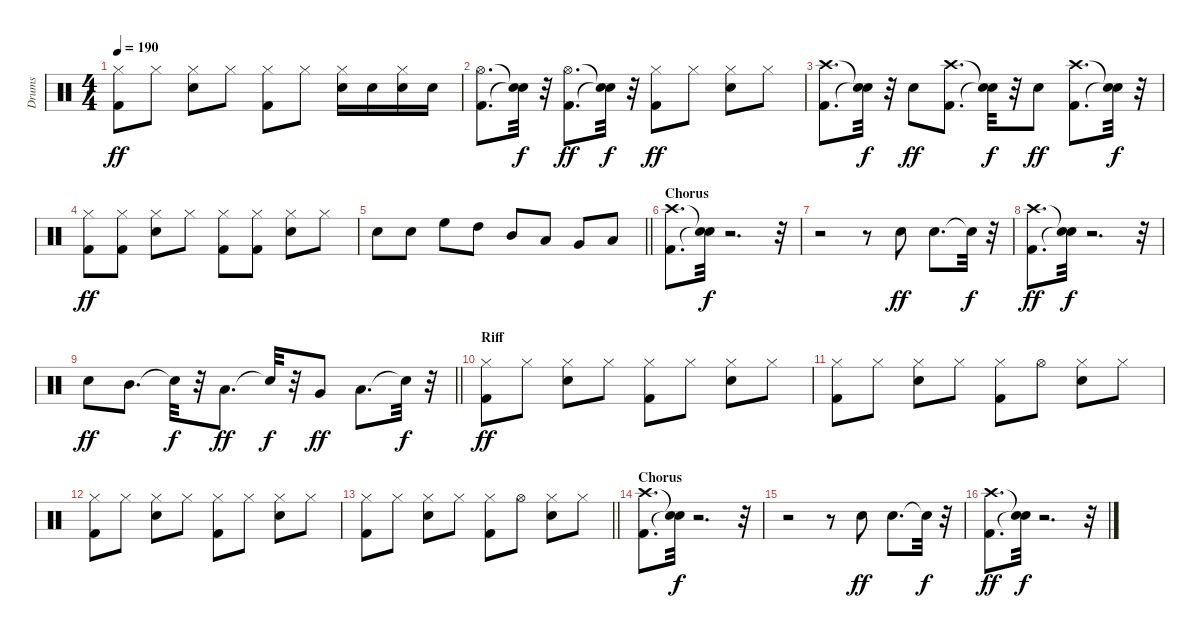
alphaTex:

\track ("Drums" "Drums") {instrument percussion}
\staff {score}
\articulation defaults
\ts (4 4)
\tempo 190
\clef neutral
\ks c
("Kick (hit) 2" "Hi-Hat (closed)").8{dy ff} "Hi-Hat (closed)".8 ("Snare (hit) 2" "Hi-Hat (closed)").8 "Hi-Hat (closed)".8 ("Kick (hit) 2" "Hi-Hat (closed)").8 "Hi-Hat (closed)".8 ("Snare (hit) 2" "Hi-Hat (closed)").16 "Snare (hit) 2".16 ("Snare (hit) 2" "Hi-Hat (closed)").16 "Snare (hit) 2".16 |
("Kick (hit) 2" "Hi-Hat (open)").8{d} ("Snare (hit)"{t} "Snare (hit)"{t}).32{dy f} r.32 ("Kick (hit) 2" "Hi-Hat (open)").8{d dy ff} ("Snare (hit)"{t} "Snare (hit)"{t}).32{dy f} r.32 ("Kick (hit) 2" "Hi-Hat (closed)").8{dy ff} "Hi-Hat (closed)".8 ("Snare (hit) 2" "Hi-Hat (closed)").8 "Hi-Hat (closed)".8 |
("Kick (hit) 2" "Crash high (hit)").8{d} ("Snare (hit)"{t} "Snare (hit)"{t}).32{dy f} r.32 "Snare (hit) 2".8{dy ff} ("Kick (hit) 2" "Crash high (hit)").8{d} ("Snare (hit)"{t} "Snare (hit)"{t}).32{dy f} r.32 "Snare (hit) 2".8{dy ff} ("Kick (hit) 2" "Crash high (hit)").8{d} ("Snare (hit)"{t} "Snare (hit)"{t}).32{dy f} r.32 |
("Kick (hit) 2" "Hi-Hat (closed)").8{dy ff} ("Kick (hit) 2" "Hi-Hat (closed)").8 ("Snare (hit) 2" "Hi-Hat (closed)").8 "Hi-Hat (closed)".8 ("Kick (hit) 2" "Hi-Hat (closed)").8 ("Kick (hit) 2" "Hi-Hat (closed)").8 ("Snare (hit) 2" "Hi-Hat (closed)").8 "Hi-Hat (closed)".8 |
\barLineRight lightlight "Snare (hit) 2".8 "Snare (hit) 2".8 "High Floor Tom (hit)".8 "High Tom (hit)".8 "Mid Tom (hit)".8 "Low Tom (hit)".8 "Very Low Tom (hit)".8 "Low Floor Tom (hit)".8
|
\section ("" "Chorus")
("Kick (hit) 2" "Crash high (hit)").8{d} ("Snare (hit)"{t} "Snare (hit)"{t}).32{dy f} r.2{d} r.32 |
r.2 r.8 "Snare (hit) 2".8{dy ff} "Snare (hit) 2".8{d} "Snare (hit)"{t}.32{dy f} r.32 |
("Kick (hit) 2" "Crash high (hit)").8{d dy ff} ("Snare (hit)"{t} "Snare (hit)"{t}).32{dy f} r.2{d} r.32 |
\barLineRight lightlight "Snare (hit) 2".8{dy ff} "Mid Tom (hit)".8{d} "Snare (hit)"{t}.32{dy f}
r.32 "Low Tom (hit)".8{d dy ff} "Snare (hit)"{t}.32{dy f} r.32 "Very Low Tom (hit)".8{dy ff} "Low Floor Tom (hit)".8{d} "Snare (hit)"{t}.32{dy f} r.32 |
\section ("" "Riff")
("Kick (hit) 2" "Hi-Hat (closed)").8{dy ff} "Hi-Hat (closed)".8 ("Snare (hit) 2" "Hi-Hat (closed)").8 "Hi-Hat (closed)".8 ("Kick (hit) 2" "Hi-Hat (closed)").8 "Hi-Hat (closed)".8 ("Snare (hit) 2" "Hi-Hat (closed)").8 "Hi-Hat (closed)".8 |
("Kick (hit) 2" "Hi-Hat (closed)").8 "Hi-Hat (closed)".8 ("Snare (hit) 2" "Hi-Hat (closed)").8 "Hi-Hat (closed)".8 ("Kick (hit) 2" "Hi-Hat (closed)").8 "Hi-Hat (open)".8 ("Snare (hit) 2" "Hi-Hat (closed)").8 "Hi-Hat (closed)".8 |
("Kick (hit) 2" "Hi-Hat (closed)").8 "Hi-Hat (closed)".8 ("Snare (hit) 2" "Hi-Hat (closed)").8 "Hi-Hat (closed)".8 ("Kick (hit) 2" "Hi-Hat (closed)").8 "Hi-Hat (closed)".8 ("Snare (hit) 2" "Hi-Hat (closed)").8 "Hi-Hat (closed)".8 |
\barLineRight lightlight
("Kick (hit) 2" "Hi-Hat (closed)").8 "Hi-Hat (closed)".8 ("Snare (hit) 2" "Hi-Hat (closed)").8 "Hi-Hat (closed)".8 ("Kick (hit) 2" "Hi-Hat (closed)").8 "Hi-Hat (open)".8 ("Snare (hit) 2" "Hi-Hat (closed)").8 "Hi-Hat (closed)".8 |
\section ("" "Chorus")
("Kick (hit) 2" "Crash high (hit)").8{d} ("Snare (hit)"{t} "Snare (hit)"{t}).32{dy f} r.2{d} r.32 |
r.2 r.8 "Snare (hit) 2".8{dy ff} "Snare (hit) 2".8{d} "Snare (hit)"{t}.32{dy f} r.32 |
("Kick (hit) 2" "Crash high (hit)").8{d dy ff} ("Snare (hit)"{t} "Snare (hit)"{t}).32{dy f} r.2{d} r.32
